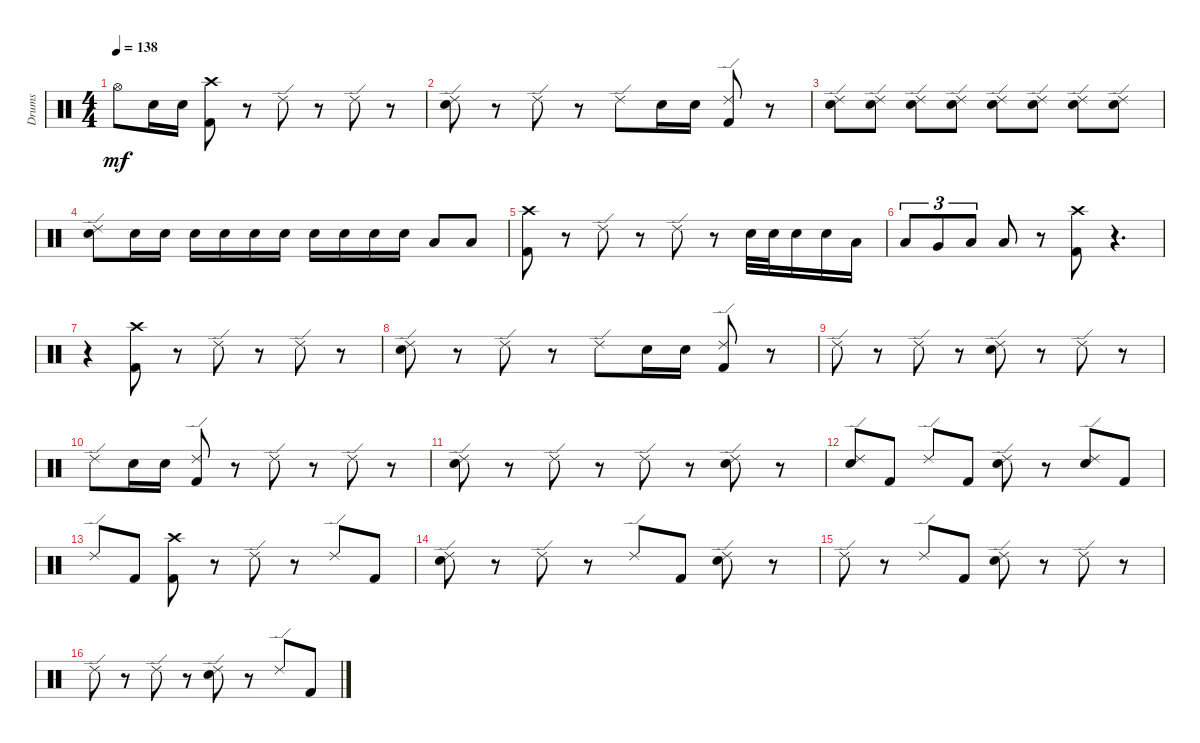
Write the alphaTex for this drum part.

\track ("Drums" "Drums") {instrument percussion}
\staff {score}
\articulation defaults
\ts (4 4)
\tempo 138
\clef neutral
\ks c "Hi-Hat (open)".8{dy mf} "Electric Snare (hit)".16 "Electric Snare (hit)".16
("Kick (hit) 2" "Crash high (hit)").8 r.8 "Ride (edge) 2".8 r.8 "Ride (edge) 2".8 r.8 |
("Electric Snare (hit)" "Ride (edge) 2").8 r.8 "Ride (edge) 2".8 r.8 "Ride (edge) 2".8 "Electric Snare (hit)".16 "Electric Snare (hit)".16 ("Kick (hit) 2" "Ride (edge) 2").8 r.8 |
("Electric Snare (hit)" "Ride (edge) 2").8 ("Electric Snare (hit)" "Ride (edge) 2").8 ("Electric Snare (hit)" "Ride (edge) 2").8 ("Electric Snare (hit)" "Ride (edge) 2").8 ("Electric Snare (hit)" "Ride (edge) 2").8 ("Electric Snare (hit)" "Ride (edge) 2").8 ("Electric Snare (hit)" "Ride (edge) 2").8 ("Electric Snare (hit)" "Ride (edge) 2").8 |
("Electric Snare (hit)" "Ride (edge) 2").8 "Electric Snare (hit)".16 "Electric Snare (hit)".16 "Electric Snare (hit)".16 "Electric Snare (hit)".16 "Electric Snare (hit)".16 "Electric Snare (hit)".16 "Electric Snare (hit)".16 "Electric Snare (hit)".16 "Electric Snare (hit)".16 "Electric Snare (hit)".16 "Low Tom (hit)".8 "Low Tom (hit)".8 |
("Kick (hit) 2" "Crash high (hit)").8 r.8 "Ride (edge) 2".8 r.8 "Ride (edge) 2".8 r.8 "Electric Snare (hit)".32 "Electric Snare (hit)".32 "Electric Snare (hit)".16 "Electric Snare (hit)".16 "Low Tom (hit)".16 |
"Low Tom (hit)".8{tu (3 2)} "Very Low Tom (hit)".8{tu (3 2)} "Low Floor Tom (hit)".8{tu (3 2)} "Low Floor Tom (hit)".8 r.8 ("Kick (hit) 2" "Crash high (hit)").8 r.4{d} |
r.4 ("Kick (hit) 2" "Crash high (hit)").8 r.8 "Ride (edge) 2".8 r.8 "Ride (edge) 2".8 r.8 |
("Electric Snare (hit)" "Ride (edge) 2").8 r.8 "Ride (edge) 2".8 r.8 "Ride (edge) 2".8 "Electric Snare (hit)".16 "Electric Snare (hit)".16 ("Kick (hit) 2" "Ride (edge) 2").8 r.8 |
"Ride (edge) 2".8 r.8 "Ride (edge) 2".8 r.8 ("Electric Snare (hit)" "Ride (edge) 2").8 r.8 "Ride (edge) 2".8 r.8 |
"Ride (edge) 2".8 "Electric Snare (hit)".16 "Electric Snare (hit)".16 ("Kick (hit) 2" "Ride (edge) 2").8 r.8 "Ride (edge) 2".8 r.8 "Ride (edge) 2".8 r.8 |
("Electric Snare (hit)" "Ride (edge) 2").8 r.8 "Ride (edge) 2".8 r.8 "Ride (edge) 2".8 r.8 ("Electric Snare (hit)" "Ride (edge) 2").8 r.8 |
("Electric Snare (hit)" "Ride (edge) 2").8 "Kick (hit) 2".8 "Ride (edge) 2".8 "Kick (hit) 2".8 ("Electric Snare (hit)" "Ride (edge) 2").8 r.8 ("Electric Snare (hit)" "Ride (edge) 2").8 "Kick (hit) 2".8 |
"Ride (edge) 2".8 "Kick (hit) 2".8 ("Kick (hit) 2" "Crash high (hit)").8 r.8 "Ride (edge) 2".8 r.8 "Ride (edge) 2".8 "Kick (hit) 2".8 |
("Electric Snare (hit)" "Ride (edge) 2").8 r.8 "Ride (edge) 2".8 r.8 "Ride (edge) 2".8 "Kick (hit) 2".8 ("Electric Snare (hit)" "Ride (edge) 2").8 r.8 |
"Ride (edge) 2".8 r.8 "Ride (edge) 2".8 "Kick (hit) 2".8 ("Electric Snare (hit)" "Ride (edge) 2").8 r.8 "Ride (edge) 2".8 r.8 |
"Ride (edge) 2".8 r.8 "Ride (edge) 2".8 r.8 ("Electric Snare (hit)" "Ride (edge) 2").8 r.8 "Ride (edge) 2".8 "Kick (hit) 2".8
